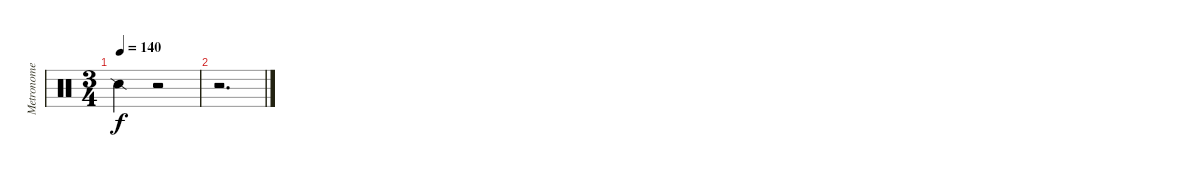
\track ("Metronome" "Metronome") {instrument percussion}
\staff {score}
\articulation defaults
\ts (3 4)
\tempo 140
\clef neutral
\ks c "Snare (side stick) 2".4{dy f}
r.2 |
r.2{d}
